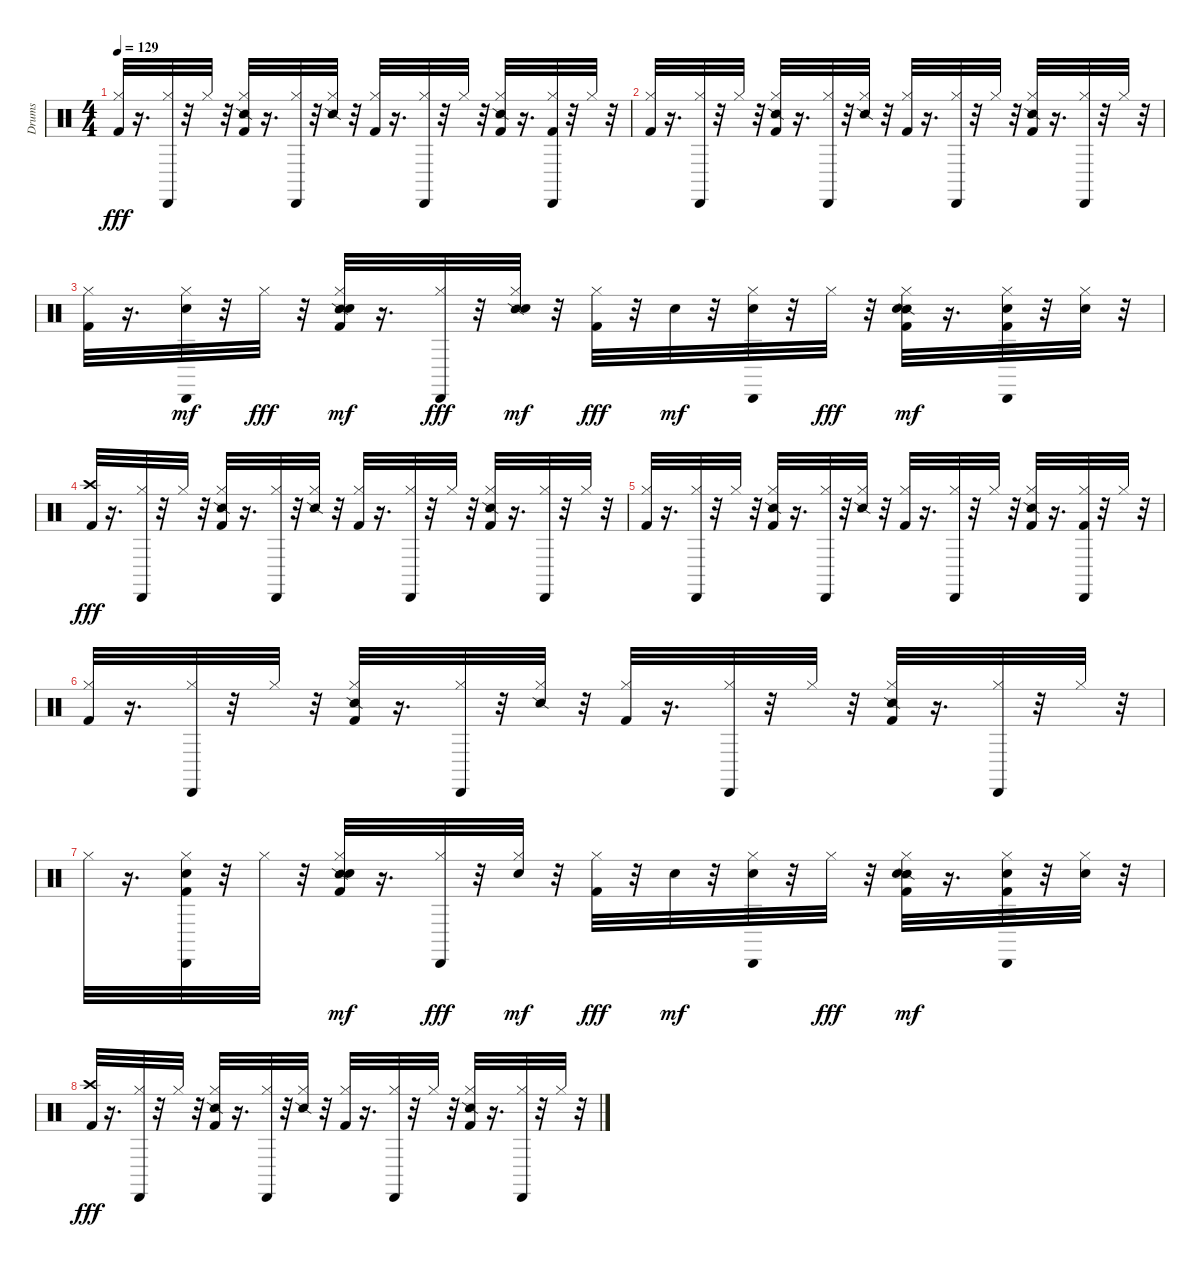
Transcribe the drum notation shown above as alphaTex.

\track ("Drums" "Drums") {instrument percussion}
\staff {score}
\articulation defaults
\ts (4 4)
\tempo 129
\clef neutral
\ks c
("Kick (hit) 2" "Hi-Hat (closed)").32{dy fff} r.16{d} ("Cabasa (hit)" "Hi-Hat (closed)").32 r.32 "Hi-Hat (closed)".32 r.32 ("Snare (side stick) 2" "Hi-Hat (closed)" "Kick (hit) 2").32 r.16{d} ("Cabasa (hit)" "Hi-Hat (closed)").32 r.32 ("Snare (side stick) 2" "Hi-Hat (closed)").32 r.32 ("Kick (hit) 2" "Hi-Hat (closed)").32 r.16{d} ("Cabasa (hit)" "Hi-Hat (closed)").32 r.32 "Hi-Hat (closed)".32 r.32 ("Snare (side stick) 2" "Hi-Hat (closed)" "Kick (hit) 2").32 r.16{d} ("Kick (hit) 2" "Cabasa (hit)" "Hi-Hat (closed)").32 r.32 "Hi-Hat (closed)".32 r.32 |
("Kick (hit) 2" "Hi-Hat (closed)").32 r.16{d} ("Cabasa (hit)" "Hi-Hat (closed)").32 r.32 "Hi-Hat (closed)".32 r.32 ("Snare (side stick) 2" "Hi-Hat (closed)" "Kick (hit) 2").32 r.16{d} ("Cabasa (hit)" "Hi-Hat (closed)").32 r.32 ("Snare (side stick) 2" "Hi-Hat (closed)").32 r.32 ("Kick (hit) 2" "Hi-Hat (closed)").32 r.16{d} ("Cabasa (hit)" "Hi-Hat (closed)").32 r.32 "Hi-Hat (closed)".32 r.32 ("Snare (side stick) 2" "Hi-Hat (closed)" "Kick (hit) 2").32 r.16{d} ("Cabasa (hit)" "Hi-Hat (closed)").32 r.32 "Hi-Hat (closed)".32 r.32 |
("Kick (hit) 2" "Hi-Hat (closed)").32 r.16{d} ("Cabasa (hit)" "Hi-Hat (closed)" "Hand Clap (hit)").32{dy mf} r.32 "Hi-Hat (closed)".32{dy fff} r.32 ("Snare (side stick) 2" "Hi-Hat (closed)" "Kick (hit) 2" "Hand Clap (hit)").32{dy mf} r.16{d} ("Cabasa (hit)" "Hi-Hat (closed)").32{dy fff} r.32 ("Snare (side stick) 2" "Hi-Hat (closed)" "Hand Clap (hit)").32{dy mf} r.32 ("Kick (hit) 2" "Hi-Hat (closed)").32{dy fff} r.32 "Hand Clap (hit)".32{dy mf} r.32 ("Cabasa (hit)" "Hi-Hat (closed)" "Hand Clap (hit)").32 r.32 "Hi-Hat (closed)".32{dy fff} r.32 ("Snare (side stick) 2" "Hi-Hat (closed)" "Kick (hit) 2" "Hand Clap (hit)").32{dy mf} r.16{d} ("Kick (hit) 2" "Cabasa (hit)" "Hi-Hat (closed)" "Hand Clap (hit)").32 r.32 ("Hi-Hat (closed)" "Hand Clap (hit)").32 r.32 |
("Kick (hit) 2" "Crash high (hit)").32{dy fff} r.16{d} ("Cabasa (hit)" "Hi-Hat (closed)").32 r.32 "Hi-Hat (closed)".32 r.32 ("Snare (side stick) 2" "Hi-Hat (closed)" "Kick (hit) 2").32 r.16{d} ("Cabasa (hit)" "Hi-Hat (closed)").32 r.32 ("Snare (side stick) 2" "Hi-Hat (closed)").32 r.32 ("Kick (hit) 2" "Hi-Hat (closed)").32 r.16{d} ("Cabasa (hit)" "Hi-Hat (closed)").32 r.32 "Hi-Hat (closed)".32 r.32 ("Snare (side stick) 2" "Hi-Hat (closed)" "Kick (hit) 2").32 r.16{d} ("Cabasa (hit)" "Hi-Hat (closed)").32 r.32 "Hi-Hat (closed)".32 r.32 |
("Kick (hit) 2" "Hi-Hat (closed)").32 r.16{d} ("Cabasa (hit)" "Hi-Hat (closed)").32 r.32 "Hi-Hat (closed)".32 r.32 ("Snare (side stick) 2" "Hi-Hat (closed)" "Kick (hit) 2").32 r.16{d} ("Cabasa (hit)" "Hi-Hat (closed)").32 r.32 ("Snare (side stick) 2" "Hi-Hat (closed)").32 r.32 ("Kick (hit) 2" "Hi-Hat (closed)").32 r.16{d} ("Cabasa (hit)" "Hi-Hat (closed)").32 r.32 "Hi-Hat (closed)".32 r.32 ("Snare (side stick) 2" "Hi-Hat (closed)" "Kick (hit) 2").32 r.16{d} ("Kick (hit) 2" "Cabasa (hit)" "Hi-Hat (closed)").32 r.32 "Hi-Hat (closed)".32 r.32 |
("Kick (hit) 2" "Hi-Hat (closed)").32 r.16{d} ("Cabasa (hit)" "Hi-Hat (closed)").32 r.32 "Hi-Hat (closed)".32 r.32 ("Snare (side stick) 2" "Hi-Hat (closed)" "Kick (hit) 2").32 r.16{d} ("Cabasa (hit)" "Hi-Hat (closed)").32 r.32 ("Snare (side stick) 2" "Hi-Hat (closed)").32 r.32 ("Kick (hit) 2" "Hi-Hat (closed)").32 r.16{d} ("Cabasa (hit)" "Hi-Hat (closed)").32 r.32 "Hi-Hat (closed)".32 r.32 ("Snare (side stick) 2" "Hi-Hat (closed)" "Kick (hit) 2").32 r.16{d} ("Cabasa (hit)" "Hi-Hat (closed)").32 r.32 "Hi-Hat (closed)".32 r.32 |
"Hi-Hat (closed)".32 r.16{d} ("Cabasa (hit)" "Hi-Hat (closed)" "Hand Clap (hit)" "Kick (hit) 2").32 r.32 "Hi-Hat (closed)".32 r.32 ("Snare (side stick) 2" "Hi-Hat (closed)" "Kick (hit) 2" "Hand Clap (hit)").32{dy mf} r.16{d} ("Cabasa (hit)" "Hi-Hat (closed)").32{dy fff} r.32 ("Hi-Hat (closed)" "Hand Clap (hit)").32{dy mf} r.32 ("Kick (hit) 2" "Hi-Hat (closed)").32{dy fff} r.32 "Hand Clap (hit)".32{dy mf} r.32 ("Cabasa (hit)" "Hi-Hat (closed)" "Hand Clap (hit)").32 r.32 "Hi-Hat (closed)".32{dy fff} r.32 ("Snare (side stick) 2" "Hi-Hat (closed)" "Kick (hit) 2" "Hand Clap (hit)").32{dy mf} r.16{d} ("Kick (hit) 2" "Cabasa (hit)" "Hi-Hat (closed)" "Hand Clap (hit)").32 r.32 ("Hi-Hat (closed)" "Hand Clap (hit)").32 r.32 |
("Kick (hit) 2" "Crash high (hit)").32{dy fff} r.16{d} ("Cabasa (hit)" "Hi-Hat (closed)").32 r.32 "Hi-Hat (closed)".32 r.32 ("Snare (side stick) 2" "Hi-Hat (closed)" "Kick (hit) 2").32 r.16{d} ("Cabasa (hit)" "Hi-Hat (closed)").32 r.32 ("Snare (side stick) 2" "Hi-Hat (closed)").32 r.32 ("Kick (hit) 2" "Hi-Hat (closed)").32 r.16{d} ("Cabasa (hit)" "Hi-Hat (closed)").32 r.32 "Hi-Hat (closed)".32 r.32 ("Snare (side stick) 2" "Hi-Hat (closed)" "Kick (hit) 2").32 r.16{d} ("Cabasa (hit)" "Hi-Hat (closed)").32 r.32 "Hi-Hat (closed)".32 r.32
